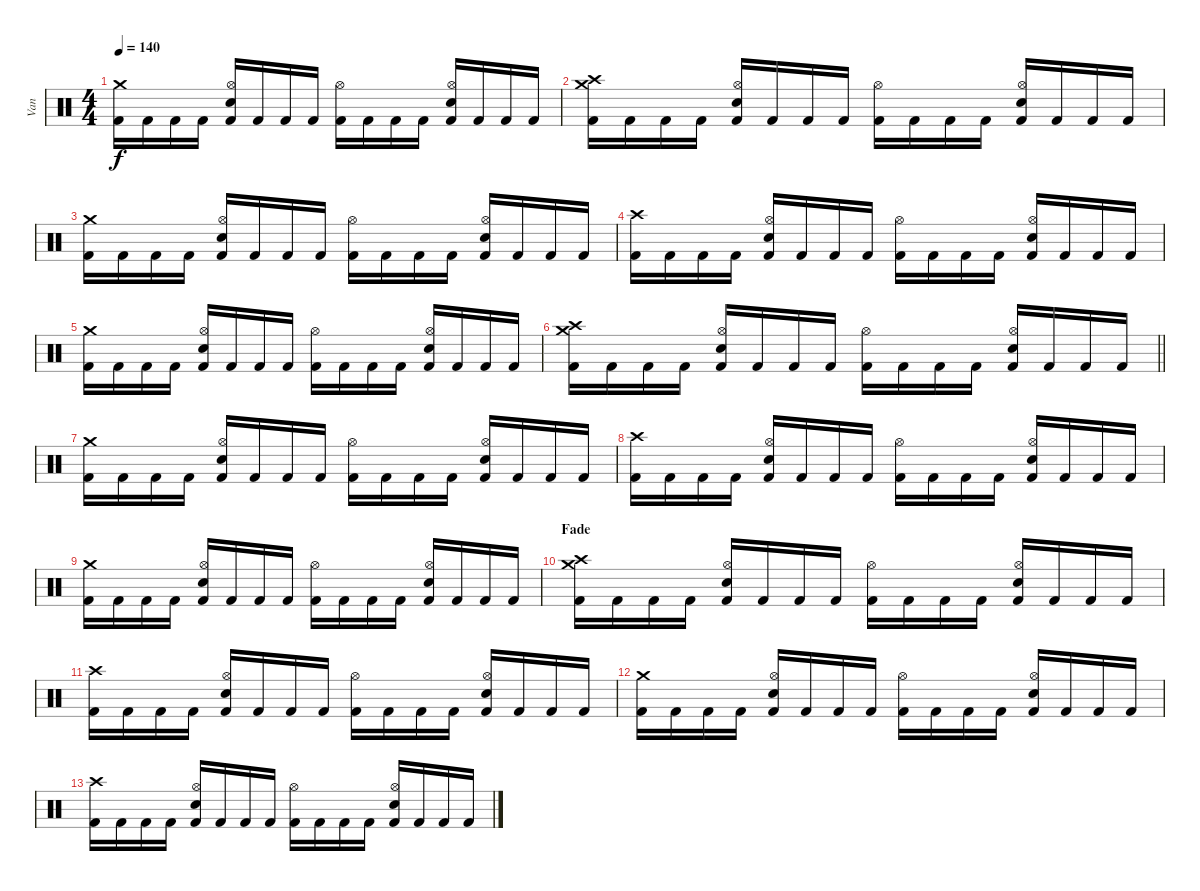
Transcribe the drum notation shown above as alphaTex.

\track ("Van" "Van") {instrument percussion}
\staff {score}
\articulation defaults
\ts (4 4)
\tempo 140
\clef neutral
\ks c
("Crash medium (hit)" "Kick (hit) 2").16{dy f} "Kick (hit) 2".16 "Kick (hit) 2".16 "Kick (hit) 2".16 ("Hi-Hat (open)" "Electric Snare (hit)" "Kick (hit) 2").16 "Kick (hit) 2".16 "Kick (hit) 2".16 "Kick (hit) 2".16 ("Hi-Hat (open)" "Kick (hit) 2").16 "Kick (hit) 2".16 "Kick (hit) 2".16 "Kick (hit) 2".16 ("Hi-Hat (open)" "Electric Snare (hit)" "Kick (hit) 2").16 "Kick (hit) 2".16 "Kick (hit) 2".16 "Kick (hit) 2".16 |
("Crash high (hit)" "Crash medium (hit)" "Kick (hit) 2").16 "Kick (hit) 2".16 "Kick (hit) 2".16 "Kick (hit) 2".16 ("Hi-Hat (open)" "Electric Snare (hit)" "Kick (hit) 2").16 "Kick (hit) 2".16 "Kick (hit) 2".16 "Kick (hit) 2".16 ("Hi-Hat (open)" "Kick (hit) 2").16 "Kick (hit) 2".16 "Kick (hit) 2".16 "Kick (hit) 2".16 ("Hi-Hat (open)" "Electric Snare (hit)" "Kick (hit) 2").16 "Kick (hit) 2".16 "Kick (hit) 2".16 "Kick (hit) 2".16 |
("Crash medium (hit)" "Kick (hit) 2").16 "Kick (hit) 2".16 "Kick (hit) 2".16 "Kick (hit) 2".16 ("Hi-Hat (open)" "Electric Snare (hit)" "Kick (hit) 2").16 "Kick (hit) 2".16 "Kick (hit) 2".16 "Kick (hit) 2".16 ("Hi-Hat (open)" "Kick (hit) 2").16 "Kick (hit) 2".16 "Kick (hit) 2".16 "Kick (hit) 2".16 ("Hi-Hat (open)" "Electric Snare (hit)" "Kick (hit) 2").16 "Kick (hit) 2".16 "Kick (hit) 2".16 "Kick (hit) 2".16 |
("Crash high (hit)" "Kick (hit) 2").16 "Kick (hit) 2".16 "Kick (hit) 2".16 "Kick (hit) 2".16 ("Hi-Hat (open)" "Electric Snare (hit)" "Kick (hit) 2").16 "Kick (hit) 2".16 "Kick (hit) 2".16 "Kick (hit) 2".16 ("Hi-Hat (open)" "Kick (hit) 2").16 "Kick (hit) 2".16 "Kick (hit) 2".16 "Kick (hit) 2".16 ("Hi-Hat (open)" "Electric Snare (hit)" "Kick (hit) 2").16 "Kick (hit) 2".16 "Kick (hit) 2".16 "Kick (hit) 2".16 |
("Crash medium (hit)" "Kick (hit) 2").16 "Kick (hit) 2".16 "Kick (hit) 2".16 "Kick (hit) 2".16 ("Hi-Hat (open)" "Electric Snare (hit)" "Kick (hit) 2").16 "Kick (hit) 2".16 "Kick (hit) 2".16 "Kick (hit) 2".16 ("Hi-Hat (open)" "Kick (hit) 2").16 "Kick (hit) 2".16 "Kick (hit) 2".16 "Kick (hit) 2".16 ("Hi-Hat (open)" "Electric Snare (hit)" "Kick (hit) 2").16 "Kick (hit) 2".16 "Kick (hit) 2".16 "Kick (hit) 2".16 |
\barLineRight lightlight
("Crash high (hit)" "Crash medium (hit)" "Kick (hit) 2").16 "Kick (hit) 2".16 "Kick (hit) 2".16 "Kick (hit) 2".16 ("Hi-Hat (open)" "Electric Snare (hit)" "Kick (hit) 2").16 "Kick (hit) 2".16 "Kick (hit) 2".16 "Kick (hit) 2".16 ("Hi-Hat (open)" "Kick (hit) 2").16 "Kick (hit) 2".16 "Kick (hit) 2".16 "Kick (hit) 2".16 ("Hi-Hat (open)" "Electric Snare (hit)" "Kick (hit) 2").16 "Kick (hit) 2".16 "Kick (hit) 2".16 "Kick (hit) 2".16 |
("Crash medium (hit)" "Kick (hit) 2").16 "Kick (hit) 2".16 "Kick (hit) 2".16 "Kick (hit) 2".16 ("Hi-Hat (open)" "Electric Snare (hit)" "Kick (hit) 2").16 "Kick (hit) 2".16 "Kick (hit) 2".16 "Kick (hit) 2".16 ("Hi-Hat (open)" "Kick (hit) 2").16 "Kick (hit) 2".16 "Kick (hit) 2".16 "Kick (hit) 2".16 ("Hi-Hat (open)" "Electric Snare (hit)" "Kick (hit) 2").16 "Kick (hit) 2".16 "Kick (hit) 2".16 "Kick (hit) 2".16 |
("Crash high (hit)" "Kick (hit) 2").16 "Kick (hit) 2".16 "Kick (hit) 2".16 "Kick (hit) 2".16 ("Hi-Hat (open)" "Electric Snare (hit)" "Kick (hit) 2").16 "Kick (hit) 2".16 "Kick (hit) 2".16 "Kick (hit) 2".16 ("Hi-Hat (open)" "Kick (hit) 2").16 "Kick (hit) 2".16 "Kick (hit) 2".16 "Kick (hit) 2".16 ("Hi-Hat (open)" "Electric Snare (hit)" "Kick (hit) 2").16 "Kick (hit) 2".16 "Kick (hit) 2".16 "Kick (hit) 2".16 |
("Crash medium (hit)" "Kick (hit) 2").16 "Kick (hit) 2".16 "Kick (hit) 2".16 "Kick (hit) 2".16 ("Hi-Hat (open)" "Electric Snare (hit)" "Kick (hit) 2").16 "Kick (hit) 2".16 "Kick (hit) 2".16 "Kick (hit) 2".16 ("Hi-Hat (open)" "Kick (hit) 2").16 "Kick (hit) 2".16 "Kick (hit) 2".16 "Kick (hit) 2".16 ("Hi-Hat (open)" "Electric Snare (hit)" "Kick (hit) 2").16 "Kick (hit) 2".16 "Kick (hit) 2".16 "Kick (hit) 2".16 |
\section ("" "Fade")
("Crash medium (hit)" "Crash high (hit)" "Kick (hit) 2").16 "Kick (hit) 2".16 "Kick (hit) 2".16 "Kick (hit) 2".16 ("Hi-Hat (open)" "Electric Snare (hit)" "Kick (hit) 2").16 "Kick (hit) 2".16 "Kick (hit) 2".16 "Kick (hit) 2".16 ("Hi-Hat (open)" "Kick (hit) 2").16 "Kick (hit) 2".16 "Kick (hit) 2".16 "Kick (hit) 2".16 ("Hi-Hat (open)" "Electric Snare (hit)" "Kick (hit) 2").16 "Kick (hit) 2".16 "Kick (hit) 2".16 "Kick (hit) 2".16 |
("Crash high (hit)" "Kick (hit) 2").16 "Kick (hit) 2".16 "Kick (hit) 2".16 "Kick (hit) 2".16 ("Hi-Hat (open)" "Electric Snare (hit)" "Kick (hit) 2").16 "Kick (hit) 2".16 "Kick (hit) 2".16 "Kick (hit) 2".16 ("Hi-Hat (open)" "Kick (hit) 2").16 "Kick (hit) 2".16 "Kick (hit) 2".16 "Kick (hit) 2".16 ("Hi-Hat (open)" "Electric Snare (hit)" "Kick (hit) 2").16 "Kick (hit) 2".16 "Kick (hit) 2".16 "Kick (hit) 2".16 |
("Crash medium (hit)" "Kick (hit) 2").16 "Kick (hit) 2".16 "Kick (hit) 2".16 "Kick (hit) 2".16 ("Hi-Hat (open)" "Electric Snare (hit)" "Kick (hit) 2").16 "Kick (hit) 2".16 "Kick (hit) 2".16 "Kick (hit) 2".16 ("Hi-Hat (open)" "Kick (hit) 2").16 "Kick (hit) 2".16 "Kick (hit) 2".16 "Kick (hit) 2".16 ("Hi-Hat (open)" "Electric Snare (hit)" "Kick (hit) 2").16 "Kick (hit) 2".16 "Kick (hit) 2".16 "Kick (hit) 2".16 |
("Crash high (hit)" "Kick (hit) 2").16 "Kick (hit) 2".16 "Kick (hit) 2".16 "Kick (hit) 2".16 ("Hi-Hat (open)" "Electric Snare (hit)" "Kick (hit) 2").16 "Kick (hit) 2".16 "Kick (hit) 2".16 "Kick (hit) 2".16 ("Hi-Hat (open)" "Kick (hit) 2").16 "Kick (hit) 2".16 "Kick (hit) 2".16 "Kick (hit) 2".16 ("Hi-Hat (open)" "Electric Snare (hit)" "Kick (hit) 2").16 "Kick (hit) 2".16 "Kick (hit) 2".16 "Kick (hit) 2".16
